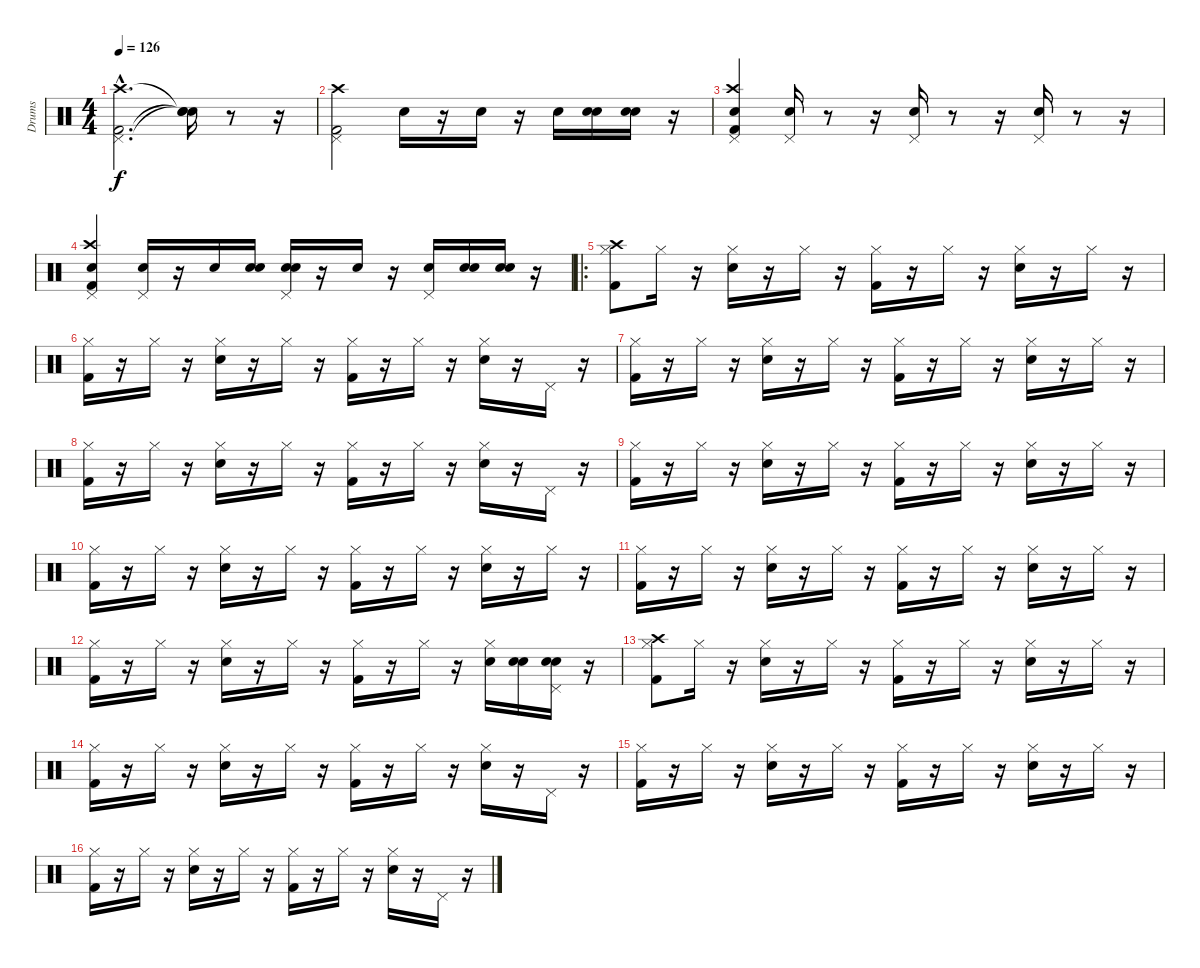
\track ("Drums   " "Drums   ") {instrument percussion}
\staff {score}
\articulation defaults
\ts (4 4)
\tempo 126
\clef neutral
\ks c
("Kick (hit) 2"{hac} "Pedal Hi-Hat (hit)"{hac} "Crash high (hit)"{hac}).2{d dy f} ("Snare (hit)"{t} "Snare (hit)"{t} "Snare (hit)"{t}).16 r.8 r.16 |
("Kick (hit) 2" "Pedal Hi-Hat (hit)" "Crash high (hit)").2 "Snare (hit) 2".16 r.16 "Snare (hit) 2".16 r.16 "Snare (hit) 2".16 ("Snare (hit)" "Snare (hit) 2").16 ("Snare (hit)" "Snare (hit) 2").16 r.16 |
("Kick (hit) 2" "Snare (hit) 2" "Pedal Hi-Hat (hit)" "Crash high (hit)").4 ("Snare (hit) 2" "Pedal Hi-Hat (hit)").16 r.8 r.16 ("Snare (hit) 2" "Pedal Hi-Hat (hit)").16 r.8 r.16 ("Snare (hit) 2" "Pedal Hi-Hat (hit)").16 r.8 r.16 |
("Kick (hit) 2" "Snare (hit) 2" "Pedal Hi-Hat (hit)" "Crash high (hit)").4 ("Snare (hit) 2" "Pedal Hi-Hat (hit)").16 r.16 "Snare (hit) 2".16 ("Snare (hit)" "Snare (hit) 2").16 ("Snare (hit)" "Snare (hit) 2" "Pedal Hi-Hat (hit)").16 r.16 "Snare (hit) 2".16 r.16 ("Snare (hit) 2" "Pedal Hi-Hat (hit)").16 ("Snare (hit)" "Snare (hit) 2").16 ("Snare (hit)" "Snare (hit) 2").16 r.16 |
\ro
("Kick (hit) 2" "Hi-Hat (closed)" "Crash high (hit)").8 "Hi-Hat (closed)".16 r.16 ("Snare (hit) 2" "Hi-Hat (closed)").16 r.16 "Hi-Hat (closed)".16 r.16 ("Kick (hit) 2" "Hi-Hat (closed)").16 r.16 "Hi-Hat (closed)".16 r.16 ("Snare (hit) 2" "Hi-Hat (closed)").16 r.16 "Hi-Hat (closed)".16 r.16 |
("Kick (hit) 2" "Hi-Hat (closed)").16 r.16 "Hi-Hat (closed)".16 r.16 ("Snare (hit) 2" "Hi-Hat (closed)").16 r.16 "Hi-Hat (closed)".16 r.16 ("Kick (hit) 2" "Hi-Hat (closed)").16 r.16 "Hi-Hat (closed)".16 r.16 ("Snare (hit) 2" "Hi-Hat (closed)").16 r.16 "Pedal Hi-Hat (hit)".16 r.16 |
("Kick (hit) 2" "Hi-Hat (closed)").16 r.16 "Hi-Hat (closed)".16 r.16 ("Snare (hit) 2" "Hi-Hat (closed)").16 r.16 "Hi-Hat (closed)".16 r.16 ("Kick (hit) 2" "Hi-Hat (closed)").16 r.16 "Hi-Hat (closed)".16 r.16 ("Snare (hit) 2" "Hi-Hat (closed)").16 r.16 "Hi-Hat (closed)".16 r.16 |
("Kick (hit) 2" "Hi-Hat (closed)").16 r.16 "Hi-Hat (closed)".16 r.16 ("Snare (hit) 2" "Hi-Hat (closed)").16 r.16 "Hi-Hat (closed)".16 r.16 ("Kick (hit) 2" "Hi-Hat (closed)").16 r.16 "Hi-Hat (closed)".16 r.16 ("Snare (hit) 2" "Hi-Hat (closed)").16 r.16 "Pedal Hi-Hat (hit)".16 r.16 |
("Kick (hit) 2" "Hi-Hat (closed)").16 r.16 "Hi-Hat (closed)".16 r.16 ("Snare (hit) 2" "Hi-Hat (closed)").16 r.16 "Hi-Hat (closed)".16 r.16 ("Kick (hit) 2" "Hi-Hat (closed)").16 r.16 "Hi-Hat (closed)".16 r.16 ("Snare (hit) 2" "Hi-Hat (closed)").16 r.16 "Hi-Hat (closed)".16 r.16 |
("Kick (hit) 2" "Hi-Hat (closed)").16 r.16 "Hi-Hat (closed)".16 r.16 ("Snare (hit) 2" "Hi-Hat (closed)").16 r.16 "Hi-Hat (closed)".16 r.16 ("Kick (hit) 2" "Hi-Hat (closed)").16 r.16 "Hi-Hat (closed)".16 r.16 ("Snare (hit) 2" "Hi-Hat (closed)").16 r.16 "Hi-Hat (closed)".16 r.16 |
("Kick (hit) 2" "Hi-Hat (closed)").16 r.16 "Hi-Hat (closed)".16 r.16 ("Snare (hit) 2" "Hi-Hat (closed)").16 r.16 "Hi-Hat (closed)".16 r.16 ("Kick (hit) 2" "Hi-Hat (closed)").16 r.16 "Hi-Hat (closed)".16 r.16 ("Snare (hit) 2" "Hi-Hat (closed)").16 r.16 "Hi-Hat (closed)".16 r.16 |
("Kick (hit) 2" "Hi-Hat (closed)").16 r.16 "Hi-Hat (closed)".16 r.16 ("Snare (hit) 2" "Hi-Hat (closed)").16 r.16 "Hi-Hat (closed)".16 r.16 ("Kick (hit) 2" "Hi-Hat (closed)").16 r.16 "Hi-Hat (closed)".16 r.16 ("Snare (hit) 2" "Hi-Hat (closed)").16 ("Snare (hit)" "Snare (hit) 2").16 ("Snare (hit)" "Snare (hit) 2" "Pedal Hi-Hat (hit)").16 r.16 |
("Kick (hit) 2" "Hi-Hat (closed)" "Crash high (hit)").8 "Hi-Hat (closed)".16 r.16 ("Snare (hit) 2" "Hi-Hat (closed)").16 r.16 "Hi-Hat (closed)".16 r.16 ("Kick (hit) 2" "Hi-Hat (closed)").16 r.16 "Hi-Hat (closed)".16 r.16 ("Snare (hit) 2" "Hi-Hat (closed)").16 r.16 "Hi-Hat (closed)".16 r.16 |
("Kick (hit) 2" "Hi-Hat (closed)").16 r.16 "Hi-Hat (closed)".16 r.16 ("Snare (hit) 2" "Hi-Hat (closed)").16 r.16 "Hi-Hat (closed)".16 r.16 ("Kick (hit) 2" "Hi-Hat (closed)").16 r.16 "Hi-Hat (closed)".16 r.16 ("Snare (hit) 2" "Hi-Hat (closed)").16 r.16 "Pedal Hi-Hat (hit)".16 r.16 |
("Kick (hit) 2" "Hi-Hat (closed)").16 r.16 "Hi-Hat (closed)".16 r.16 ("Snare (hit) 2" "Hi-Hat (closed)").16 r.16 "Hi-Hat (closed)".16 r.16 ("Kick (hit) 2" "Hi-Hat (closed)").16 r.16 "Hi-Hat (closed)".16 r.16 ("Snare (hit) 2" "Hi-Hat (closed)").16 r.16 "Hi-Hat (closed)".16 r.16 |
("Kick (hit) 2" "Hi-Hat (closed)").16 r.16 "Hi-Hat (closed)".16 r.16 ("Snare (hit) 2" "Hi-Hat (closed)").16 r.16 "Hi-Hat (closed)".16 r.16 ("Kick (hit) 2" "Hi-Hat (closed)").16 r.16 "Hi-Hat (closed)".16 r.16 ("Snare (hit) 2" "Hi-Hat (closed)").16 r.16 "Pedal Hi-Hat (hit)".16 r.16
